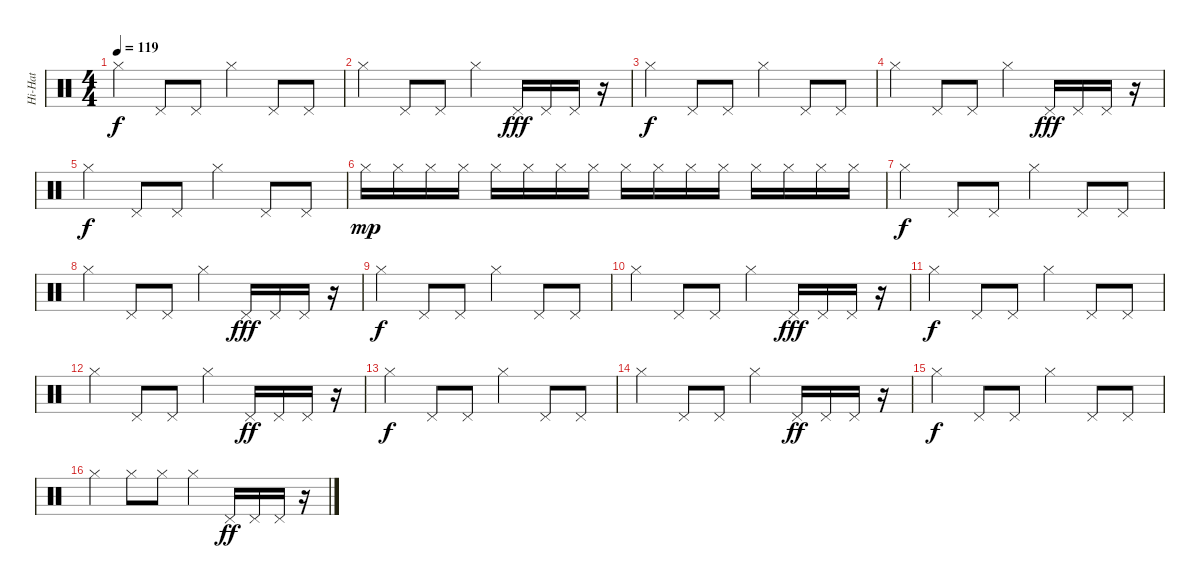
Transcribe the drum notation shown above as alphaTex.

\track ("Hi-Hat" "Hi-Hat") {instrument percussion}
\staff {score}
\articulation defaults
\ts (4 4)
\tempo 119
\clef neutral
\ks c "Hi-Hat (closed)".4{dy f} "Pedal Hi-Hat (hit)".8 "Pedal Hi-Hat (hit)".8 "Hi-Hat (closed)".4 "Pedal Hi-Hat (hit)".8 "Pedal Hi-Hat (hit)".8
|
"Hi-Hat (closed)".4 "Pedal Hi-Hat (hit)".8 "Pedal Hi-Hat (hit)".8 "Hi-Hat (closed)".4 "Pedal Hi-Hat (hit)".16{dy fff} "Pedal Hi-Hat (hit)".16 "Pedal Hi-Hat (hit)".16 r.16 |
"Hi-Hat (closed)".4{dy f} "Pedal Hi-Hat (hit)".8 "Pedal Hi-Hat (hit)".8 "Hi-Hat (closed)".4 "Pedal Hi-Hat (hit)".8 "Pedal Hi-Hat (hit)".8 |
"Hi-Hat (closed)".4 "Pedal Hi-Hat (hit)".8 "Pedal Hi-Hat (hit)".8 "Hi-Hat (closed)".4 "Pedal Hi-Hat (hit)".16{dy fff} "Pedal Hi-Hat (hit)".16 "Pedal Hi-Hat (hit)".16 r.16 |
"Hi-Hat (closed)".4{dy f} "Pedal Hi-Hat (hit)".8 "Pedal Hi-Hat (hit)".8 "Hi-Hat (closed)".4 "Pedal Hi-Hat (hit)".8 "Pedal Hi-Hat (hit)".8 |
"Hi-Hat (closed)".16{dy mp} "Hi-Hat (closed)".16 "Hi-Hat (closed)".16 "Hi-Hat (closed)".16 "Hi-Hat (closed)".16 "Hi-Hat (closed)".16 "Hi-Hat (closed)".16 "Hi-Hat (closed)".16 "Hi-Hat (closed)".16 "Hi-Hat (closed)".16 "Hi-Hat (closed)".16 "Hi-Hat (closed)".16 "Hi-Hat (closed)".16 "Hi-Hat (closed)".16 "Hi-Hat (closed)".16 "Hi-Hat (closed)".16 |
"Hi-Hat (closed)".4{dy f volume 13} "Pedal Hi-Hat (hit)".8 "Pedal Hi-Hat (hit)".8 "Hi-Hat (closed)".4 "Pedal Hi-Hat (hit)".8 "Pedal Hi-Hat (hit)".8 |
"Hi-Hat (closed)".4 "Pedal Hi-Hat (hit)".8 "Pedal Hi-Hat (hit)".8 "Hi-Hat (closed)".4 "Pedal Hi-Hat (hit)".16{dy fff} "Pedal Hi-Hat (hit)".16 "Pedal Hi-Hat (hit)".16 r.16 |
"Hi-Hat (closed)".4{dy f} "Pedal Hi-Hat (hit)".8 "Pedal Hi-Hat (hit)".8 "Hi-Hat (closed)".4 "Pedal Hi-Hat (hit)".8 "Pedal Hi-Hat (hit)".8 |
"Hi-Hat (closed)".4 "Pedal Hi-Hat (hit)".8 "Pedal Hi-Hat (hit)".8 "Hi-Hat (closed)".4 "Pedal Hi-Hat (hit)".16{dy fff} "Pedal Hi-Hat (hit)".16 "Pedal Hi-Hat (hit)".16 r.16 |
"Hi-Hat (closed)".4{dy f} "Pedal Hi-Hat (hit)".8 "Pedal Hi-Hat (hit)".8 "Hi-Hat (closed)".4 "Pedal Hi-Hat (hit)".8 "Pedal Hi-Hat (hit)".8 |
"Hi-Hat (closed)".4 "Pedal Hi-Hat (hit)".8 "Pedal Hi-Hat (hit)".8 "Hi-Hat (closed)".4 "Pedal Hi-Hat (hit)".16{dy ff} "Pedal Hi-Hat (hit)".16 "Pedal Hi-Hat (hit)".16 r.16 |
"Hi-Hat (closed)".4{dy f} "Pedal Hi-Hat (hit)".8 "Pedal Hi-Hat (hit)".8 "Hi-Hat (closed)".4 "Pedal Hi-Hat (hit)".8 "Pedal Hi-Hat (hit)".8 |
"Hi-Hat (closed)".4 "Pedal Hi-Hat (hit)".8 "Pedal Hi-Hat (hit)".8 "Hi-Hat (closed)".4 "Pedal Hi-Hat (hit)".16{dy ff} "Pedal Hi-Hat (hit)".16 "Pedal Hi-Hat (hit)".16 r.16 |
"Hi-Hat (closed)".4{dy f} "Pedal Hi-Hat (hit)".8 "Pedal Hi-Hat (hit)".8 "Hi-Hat (closed)".4 "Pedal Hi-Hat (hit)".8 "Pedal Hi-Hat (hit)".8 |
"Hi-Hat (closed)".4 "Hi-Hat (closed)".8 "Hi-Hat (closed)".8 "Hi-Hat (closed)".4 "Pedal Hi-Hat (hit)".16{dy ff} "Pedal Hi-Hat (hit)".16 "Pedal Hi-Hat (hit)".16 r.16
